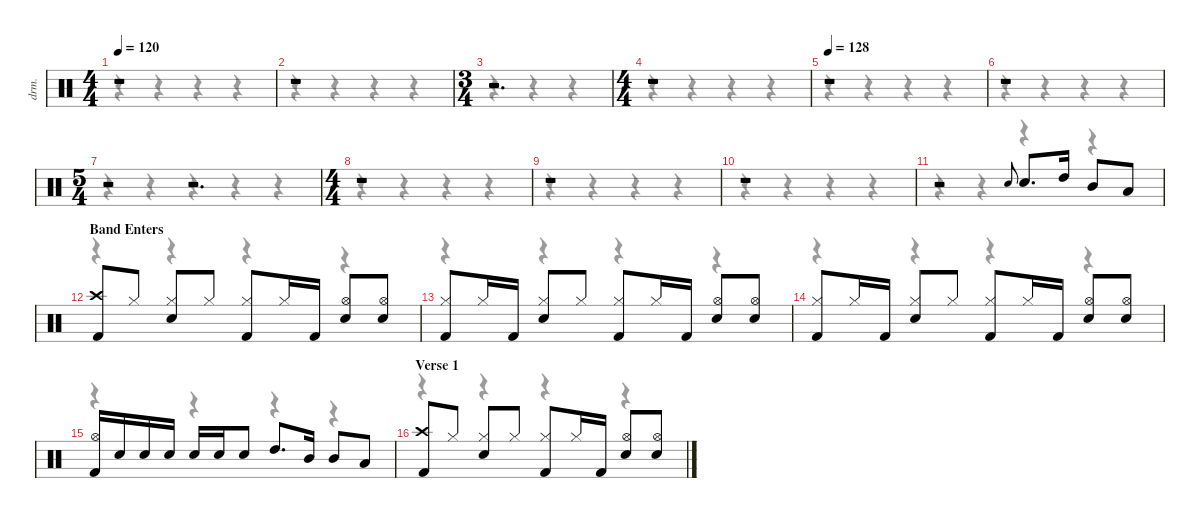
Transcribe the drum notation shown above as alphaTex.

\defaultSystemsLayout 4
\hideDynamics
\bracketExtendMode nobrackets
\track ("Drums" "drm.") {instrument percussion}
\staff {score}
\articulation defaults
\voice
\ts (4 4)
\tempo 120
\clef neutral
\ks c
r.1{dy ff} |
r.1 |
\ts (3 4)
\beaming (8 3 1 1 1)
r.2{d} |
\ts (4 4)
\beaming (8 2 2 2 2)
r.1 |
\tempo 128
r.1 |
r.1 |
\ts (5 4)
\beaming (8 4 2 2 2)
r.2 r.2{d} |
\ts (4 4)
\beaming (8 2 2 2 2)
r.1 |
r.1 |
r.1 |
r.2 "Electric Snare (hit)".8{gr onbeat} "Snare (hit) 2".8{d dy fff} "High Tom (hit)".16 "Mid Tom (hit)".8 "Low Tom (hit)".8 |
\section ("" "Band Enters")
("Kick (hit) 2" "Crash high (hit)").8 "Hi-Hat (closed)".8{dy p} ("Snare (hit) 2" "Hi-Hat (closed)").8{dy fff} "Hi-Hat (closed)".8{dy p} ("Kick (hit) 2" "Hi-Hat (closed)").8{dy fff} "Hi-Hat (closed)".16{dy p} "Kick (hit) 2".16{dy fff} ("Snare (hit) 2" "Hi-Hat (open)").8 ("Snare (hit) 2" "Hi-Hat (open)").8 |
("Kick (hit) 2" "Hi-Hat (closed)").8 "Hi-Hat (closed)".16{dy p} "Kick (hit) 2".16{dy fff} ("Snare (hit) 2" "Hi-Hat (closed)").8 "Hi-Hat (closed)".8{dy p} ("Kick (hit) 2" "Hi-Hat (closed)").8{dy fff} "Hi-Hat (closed)".16{dy p} "Kick (hit) 2".16{dy fff} ("Snare (hit) 2" "Hi-Hat (open)").8 ("Snare (hit) 2" "Hi-Hat (open)").8 |
("Kick (hit) 2" "Hi-Hat (closed)").8 "Hi-Hat (closed)".16{dy p} "Kick (hit) 2".16{dy fff} ("Snare (hit) 2" "Hi-Hat (closed)").8 "Hi-Hat (closed)".8{dy p} ("Kick (hit) 2" "Hi-Hat (closed)").8{dy fff} "Hi-Hat (closed)".16{dy p} "Kick (hit) 2".16{dy fff} ("Snare (hit) 2" "Hi-Hat (open)").8 ("Snare (hit) 2" "Hi-Hat (open)").8 |
("Kick (hit) 2" "Hi-Hat (open)").16 "Snare (hit) 2".16{dy p} "Snare (hit) 2".16{dy mp} "Snare (hit) 2".16{dy fff} "Snare (hit) 2".16{dy mp} "Snare (hit) 2".16 "Snare (hit) 2".8{dy fff} "High Tom (hit)".8{d} "Mid Tom (hit)".16 "Mid Tom (hit)".8 "Low Tom (hit)".8 |
\section ("" "Verse 1")
("Kick (hit) 2" "Crash high (hit)").8 "Hi-Hat (closed)".8{dy p} ("Snare (hit) 2" "Hi-Hat (closed)").8{dy fff} "Hi-Hat (closed)".8{dy p} ("Kick (hit) 2" "Hi-Hat (closed)").8{dy fff} "Hi-Hat (closed)".16{dy p} "Kick (hit) 2".16{dy fff} ("Snare (hit) 2" "Hi-Hat (open)").8 ("Snare (hit) 2" "Hi-Hat (open)").8
\voice
\clef neutral
\ottava regular
\simile none
\ks c
r.4{dy mf} r.4 r.4 r.4 |
r.4 r.4 r.4 r.4 |
r.4 r.4 r.4 |
r.4 r.4 r.4 r.4 |
r.4 r.4 r.4 r.4 |
r.4 r.4 r.4 r.4 |
r.4 r.4 r.4 r.4 r.4 |
r.4 r.4 r.4 r.4 |
r.4 r.4 r.4 r.4 |
r.4 r.4 r.4 r.4 |
r.4 r.4 r.4 r.4 |
r.4 r.4 r.4 r.4 |
r.4 r.4 r.4 r.4 |
r.4 r.4 r.4 r.4 |
r.4 r.4 r.4 r.4 |
r.4 r.4 r.4 r.4
